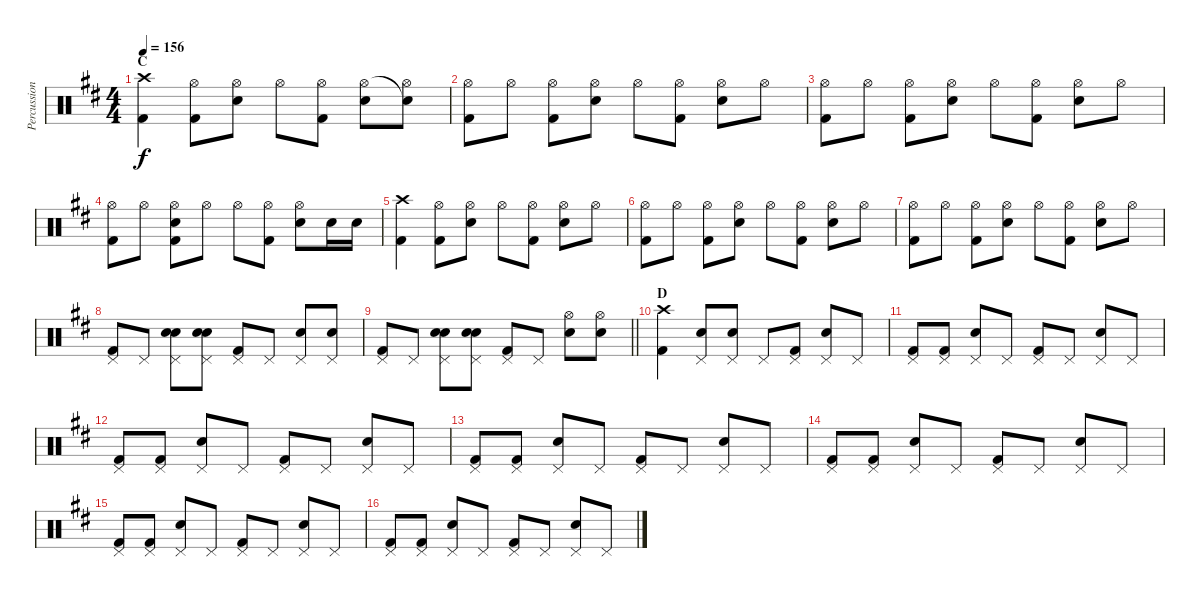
\track ("Percussion" "Percussion") {instrument percussion}
\staff {score}
\articulation defaults
\ts (4 4)
\section ("" "C")
\tempo 156
\clef neutral
\ks d
("Crash high (hit)" "Kick (hit) 2").4{dy f} ("Hi-Hat (open)" "Kick (hit) 2").8 ("Hi-Hat (open)" "Electric Snare (hit)").8 "Hi-Hat (open)".8 ("Hi-Hat (open)" "Kick (hit) 2").8 ("Hi-Hat (open)" "Electric Snare (hit)").8 ("Snare (hit)"{t} "Hi-Hat (open)").8 |
("Hi-Hat (open)" "Kick (hit) 2").8 "Hi-Hat (open)".8 ("Hi-Hat (open)" "Kick (hit) 2").8 ("Hi-Hat (open)" "Electric Snare (hit)").8 "Hi-Hat (open)".8 ("Hi-Hat (open)" "Kick (hit) 2").8 ("Hi-Hat (open)" "Electric Snare (hit)").8 "Hi-Hat (open)".8 |
("Hi-Hat (open)" "Kick (hit) 2").8 "Hi-Hat (open)".8 ("Hi-Hat (open)" "Kick (hit) 2").8 ("Hi-Hat (open)" "Electric Snare (hit)").8 "Hi-Hat (open)".8 ("Hi-Hat (open)" "Kick (hit) 2").8 ("Hi-Hat (open)" "Electric Snare (hit)").8 "Hi-Hat (open)".8 |
("Hi-Hat (open)" "Kick (hit) 2").8 "Hi-Hat (open)".8 ("Hi-Hat (open)" "Electric Snare (hit)" "Kick (hit) 2").8 "Hi-Hat (open)".8 "Hi-Hat (open)".8 ("Hi-Hat (open)" "Kick (hit) 2").8 ("Hi-Hat (open)" "Electric Snare (hit)").8 "Electric Snare (hit)".16 "Electric Snare (hit)".16 |
("Crash high (hit)" "Kick (hit) 2").4 ("Hi-Hat (open)" "Kick (hit) 2").8 ("Hi-Hat (open)" "Electric Snare (hit)").8 "Hi-Hat (open)".8 ("Hi-Hat (open)" "Kick (hit) 2").8 ("Hi-Hat (open)" "Electric Snare (hit)").8 "Hi-Hat (open)".8 |
("Hi-Hat (open)" "Kick (hit) 2").8 "Hi-Hat (open)".8 ("Hi-Hat (open)" "Kick (hit) 2").8 ("Hi-Hat (open)" "Electric Snare (hit)").8 "Hi-Hat (open)".8 ("Hi-Hat (open)" "Kick (hit) 2").8 ("Hi-Hat (open)" "Electric Snare (hit)").8 "Hi-Hat (open)".8 |
("Hi-Hat (open)" "Kick (hit) 2").8 "Hi-Hat (open)".8 ("Hi-Hat (open)" "Kick (hit) 2").8 ("Hi-Hat (open)" "Electric Snare (hit)").8 "Hi-Hat (open)".8 ("Hi-Hat (open)" "Kick (hit) 2").8 ("Hi-Hat (open)" "Electric Snare (hit)").8 "Hi-Hat (open)".8 |
("Pedal Hi-Hat (hit)" "Kick (hit) 2").8 "Pedal Hi-Hat (hit)".8 ("Hand Clap (hit)" "Pedal Hi-Hat (hit)" "Electric Snare (hit)").8 ("Hand Clap (hit)" "Pedal Hi-Hat (hit)" "Electric Snare (hit)").8 ("Pedal Hi-Hat (hit)" "Kick (hit) 2").8 "Pedal Hi-Hat (hit)".8 ("Hand Clap (hit)" "Pedal Hi-Hat (hit)").8 ("Pedal Hi-Hat (hit)" "Electric Snare (hit)").8 |
\barLineRight lightlight
("Pedal Hi-Hat (hit)" "Kick (hit) 2").8 "Pedal Hi-Hat (hit)".8 ("Hand Clap (hit)" "Pedal Hi-Hat (hit)" "Electric Snare (hit)").8 ("Hand Clap (hit)" "Pedal Hi-Hat (hit)" "Electric Snare (hit)").8 ("Pedal Hi-Hat (hit)" "Kick (hit) 2").8 "Pedal Hi-Hat (hit)".8 ("Hand Clap (hit)" "Hi-Hat (open)").8 ("Hi-Hat (open)" "Electric Snare (hit)").8 |
\section ("" "D")
("Crash high (hit)" "Kick (hit) 2").4 ("Pedal Hi-Hat (hit)" "Electric Snare (hit)").8 ("Pedal Hi-Hat (hit)" "Electric Snare (hit)").8 "Pedal Hi-Hat (hit)".8 ("Pedal Hi-Hat (hit)" "Kick (hit) 2").8 ("Pedal Hi-Hat (hit)" "Electric Snare (hit)").8 "Pedal Hi-Hat (hit)".8 |
("Pedal Hi-Hat (hit)" "Kick (hit) 2").8 ("Pedal Hi-Hat (hit)" "Kick (hit) 2").8 ("Pedal Hi-Hat (hit)" "Electric Snare (hit)").8 "Pedal Hi-Hat (hit)".8 ("Pedal Hi-Hat (hit)" "Kick (hit) 2").8 "Pedal Hi-Hat (hit)".8 ("Pedal Hi-Hat (hit)" "Electric Snare (hit)").8 "Pedal Hi-Hat (hit)".8 |
("Pedal Hi-Hat (hit)" "Kick (hit) 2").8 ("Pedal Hi-Hat (hit)" "Kick (hit) 2").8 ("Pedal Hi-Hat (hit)" "Electric Snare (hit)").8 "Pedal Hi-Hat (hit)".8 ("Pedal Hi-Hat (hit)" "Kick (hit) 2").8 "Pedal Hi-Hat (hit)".8 ("Pedal Hi-Hat (hit)" "Electric Snare (hit)").8 "Pedal Hi-Hat (hit)".8 |
("Pedal Hi-Hat (hit)" "Kick (hit) 2").8 ("Pedal Hi-Hat (hit)" "Kick (hit) 2").8 ("Pedal Hi-Hat (hit)" "Electric Snare (hit)").8 "Pedal Hi-Hat (hit)".8 ("Pedal Hi-Hat (hit)" "Kick (hit) 2").8 "Pedal Hi-Hat (hit)".8 ("Pedal Hi-Hat (hit)" "Electric Snare (hit)").8 "Pedal Hi-Hat (hit)".8 |
("Pedal Hi-Hat (hit)" "Kick (hit) 2").8 ("Pedal Hi-Hat (hit)" "Kick (hit) 2").8 ("Pedal Hi-Hat (hit)" "Electric Snare (hit)").8 "Pedal Hi-Hat (hit)".8 ("Pedal Hi-Hat (hit)" "Kick (hit) 2").8 "Pedal Hi-Hat (hit)".8 ("Pedal Hi-Hat (hit)" "Electric Snare (hit)").8 "Pedal Hi-Hat (hit)".8 |
("Pedal Hi-Hat (hit)" "Kick (hit) 2").8 ("Pedal Hi-Hat (hit)" "Kick (hit) 2").8 ("Pedal Hi-Hat (hit)" "Electric Snare (hit)").8 "Pedal Hi-Hat (hit)".8 ("Pedal Hi-Hat (hit)" "Kick (hit) 2").8 "Pedal Hi-Hat (hit)".8 ("Pedal Hi-Hat (hit)" "Electric Snare (hit)").8 "Pedal Hi-Hat (hit)".8 |
("Pedal Hi-Hat (hit)" "Kick (hit) 2").8 ("Pedal Hi-Hat (hit)" "Kick (hit) 2").8 ("Pedal Hi-Hat (hit)" "Electric Snare (hit)").8 "Pedal Hi-Hat (hit)".8 ("Pedal Hi-Hat (hit)" "Kick (hit) 2").8 "Pedal Hi-Hat (hit)".8 ("Pedal Hi-Hat (hit)" "Electric Snare (hit)").8 "Pedal Hi-Hat (hit)".8
